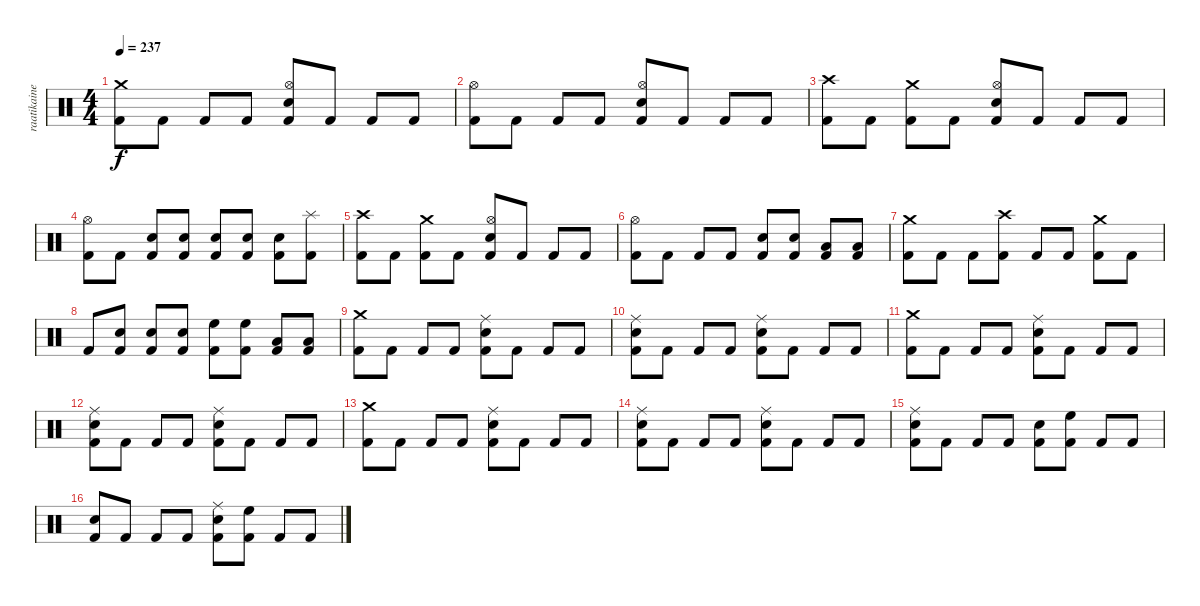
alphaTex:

\track ("raatikainen" "raatikaine") {instrument percussion}
\staff {score}
\articulation defaults
\ts (4 4)
\tempo 237
\clef neutral
\ks c
("Crash medium (hit)" "Kick (hit) 2").8{dy f} "Kick (hit) 2".8 "Kick (hit) 2".8 "Kick (hit) 2".8 ("Hi-Hat (open)" "Electric Snare (hit)" "Kick (hit) 2").8 "Kick (hit) 2".8 "Kick (hit) 2".8 "Kick (hit) 2".8 |
("Hi-Hat (open)" "Kick (hit) 2").8 "Kick (hit) 2".8 "Kick (hit) 2".8 "Kick (hit) 2".8 ("Hi-Hat (open)" "Electric Snare (hit)" "Kick (hit) 2").8 "Kick (hit) 2".8 "Kick (hit) 2".8 "Kick (hit) 2".8 |
("Crash high (hit)" "Kick (hit) 2").8 "Kick (hit) 2".8 ("Crash medium (hit)" "Kick (hit) 2").8 "Kick (hit) 2".8 ("Hi-Hat (open)" "Electric Snare (hit)" "Kick (hit) 2").8 "Kick (hit) 2".8 "Kick (hit) 2".8 "Kick (hit) 2".8 |
("Hi-Hat (open)" "Kick (hit) 2").8 "Kick (hit) 2".8 ("Electric Snare (hit)" "Kick (hit) 2").8 ("Electric Snare (hit)" "Kick (hit) 2").8 ("Electric Snare (hit)" "Kick (hit) 2").8 ("Electric Snare (hit)" "Kick (hit) 2").8 ("Electric Snare (hit)" "Kick (hit) 2").8 ("Splash (hit)" "Kick (hit) 2").8 |
("Crash high (hit)" "Kick (hit) 2").8 "Kick (hit) 2".8 ("Crash medium (hit)" "Kick (hit) 2").8 "Kick (hit) 2".8 ("Hi-Hat (open)" "Electric Snare (hit)" "Kick (hit) 2").8 "Kick (hit) 2".8 "Kick (hit) 2".8 "Kick (hit) 2".8 |
("Hi-Hat (open)" "Kick (hit) 2").8 "Kick (hit) 2".8 "Kick (hit) 2".8 "Kick (hit) 2".8 ("Electric Snare (hit)" "Kick (hit) 2").8 ("Electric Snare (hit)" "Kick (hit) 2").8 ("Low Tom (hit)" "Kick (hit) 2").8 ("Low Tom (hit)" "Kick (hit) 2").8 |
("Crash medium (hit)" "Kick (hit) 2").8 "Kick (hit) 2".8 "Kick (hit) 2".8 ("Crash high (hit)" "Kick (hit) 2").8 "Kick (hit) 2".8 "Kick (hit) 2".8 ("Crash medium (hit)" "Kick (hit) 2").8 "Kick (hit) 2".8 |
"Kick (hit) 2".8 ("Electric Snare (hit)" "Kick (hit) 2").8 ("Electric Snare (hit)" "Kick (hit) 2").8 ("Electric Snare (hit)" "Kick (hit) 2").8 ("High Floor Tom (hit)" "Kick (hit) 2").8 ("High Floor Tom (hit)" "Kick (hit) 2").8 ("Low Tom (hit)" "Kick (hit) 2").8 ("Low Tom (hit)" "Kick (hit) 2").8 |
("Crash medium (hit)" "Kick (hit) 2").8 "Kick (hit) 2".8 "Kick (hit) 2".8 "Kick (hit) 2".8 ("Ride (middle)" "Electric Snare (hit)" "Kick (hit) 2").8 "Kick (hit) 2".8 "Kick (hit) 2".8 "Kick (hit) 2".8 |
("Ride (middle)" "Electric Snare (hit)" "Kick (hit) 2").8 "Kick (hit) 2".8 "Kick (hit) 2".8 "Kick (hit) 2".8 ("Ride (middle)" "Electric Snare (hit)" "Kick (hit) 2").8 "Kick (hit) 2".8 "Kick (hit) 2".8 "Kick (hit) 2".8 |
("Crash medium (hit)" "Kick (hit) 2").8 "Kick (hit) 2".8 "Kick (hit) 2".8 "Kick (hit) 2".8 ("Ride (middle)" "Electric Snare (hit)" "Kick (hit) 2").8 "Kick (hit) 2".8 "Kick (hit) 2".8 "Kick (hit) 2".8 |
("Ride (middle)" "Electric Snare (hit)" "Kick (hit) 2").8 "Kick (hit) 2".8 "Kick (hit) 2".8 "Kick (hit) 2".8 ("Ride (middle)" "Electric Snare (hit)" "Kick (hit) 2").8 "Kick (hit) 2".8 "Kick (hit) 2".8 "Kick (hit) 2".8 |
("Crash medium (hit)" "Kick (hit) 2").8 "Kick (hit) 2".8 "Kick (hit) 2".8 "Kick (hit) 2".8 ("Ride (middle)" "Electric Snare (hit)" "Kick (hit) 2").8 "Kick (hit) 2".8 "Kick (hit) 2".8 "Kick (hit) 2".8 |
("Ride (middle)" "Electric Snare (hit)" "Kick (hit) 2").8 "Kick (hit) 2".8 "Kick (hit) 2".8 "Kick (hit) 2".8 ("Ride (middle)" "Electric Snare (hit)" "Kick (hit) 2").8 "Kick (hit) 2".8 "Kick (hit) 2".8 "Kick (hit) 2".8 |
("Ride (middle)" "Electric Snare (hit)" "Kick (hit) 2").8 "Kick (hit) 2".8 "Kick (hit) 2".8 "Kick (hit) 2".8 ("Electric Snare (hit)" "Kick (hit) 2").8 ("High Floor Tom (hit)" "Kick (hit) 2").8 "Kick (hit) 2".8 "Kick (hit) 2".8 |
("Electric Snare (hit)" "Kick (hit) 2").8 "Kick (hit) 2".8 "Kick (hit) 2".8 "Kick (hit) 2".8 ("Ride (middle)" "Electric Snare (hit)" "Kick (hit) 2").8 ("High Floor Tom (hit)" "Kick (hit) 2").8 "Kick (hit) 2".8 "Kick (hit) 2".8
